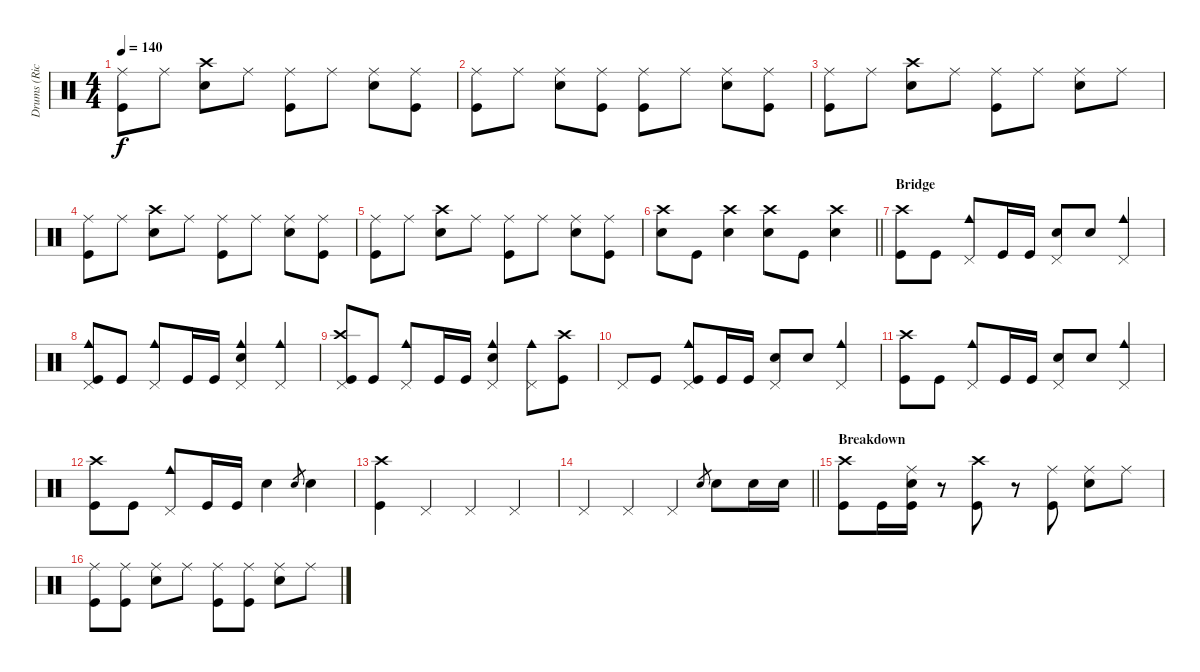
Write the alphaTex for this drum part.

\track ("Drums (Rick)" "Drums (Ric") {instrument percussion}
\staff {score}
\articulation defaults
\ts (4 4)
\tempo 140
\clef neutral
\ks aminor
("Ride (middle)" "Kick (hit)").8{dy f} "Ride (middle)".8 ("Crash high (hit)" "Snare (hit) 2").8 "Ride (middle)".8 ("Ride (middle)" "Kick (hit)").8 "Ride (middle)".8 ("Ride (middle)" "Snare (hit) 2").8 ("Ride (middle)" "Kick (hit)").8 |
("Ride (middle)" "Kick (hit)").8 "Ride (middle)".8 ("Ride (middle)" "Snare (hit) 2").8 ("Ride (middle)" "Kick (hit)").8 ("Ride (middle)" "Kick (hit)").8 "Ride (middle)".8 ("Ride (middle)" "Snare (hit) 2").8 ("Ride (middle)" "Kick (hit)").8 |
("Ride (middle)" "Kick (hit)").8 "Ride (middle)".8 ("Crash high (hit)" "Snare (hit) 2").8 "Ride (middle)".8 ("Ride (middle)" "Kick (hit)").8 "Ride (middle)".8 ("Ride (middle)" "Snare (hit) 2").8 "Ride (middle)".8 |
("Ride (middle)" "Kick (hit)").8 "Ride (middle)".8 ("Crash high (hit)" "Snare (hit) 2").8 "Ride (middle)".8 ("Ride (middle)" "Kick (hit)").8 "Ride (middle)".8 ("Ride (middle)" "Snare (hit) 2").8 ("Ride (middle)" "Kick (hit)").8 |
("Ride (middle)" "Kick (hit)").8 "Ride (middle)".8 ("Crash high (hit)" "Snare (hit) 2").8 "Ride (middle)".8 ("Ride (middle)" "Kick (hit)").8 "Ride (middle)".8 ("Ride (middle)" "Snare (hit) 2").8 ("Ride (middle)" "Kick (hit)").8 |
\barLineRight lightlight
("Crash high (hit)" "Snare (hit) 2").8 "Kick (hit)".8 ("Crash high (hit)" "Snare (hit) 2").4 ("Crash high (hit)" "Snare (hit) 2").8 "Kick (hit)".8 ("Crash high (hit)" "Snare (hit) 2").4 |
\section ("" "Bridge")
("Crash high (hit)" "Kick (hit)").8 "Kick (hit)".8 ("Cowbell medium (hit)" "Pedal Hi-Hat (hit)").8 "Kick (hit)".16 "Kick (hit)".16 ("Snare (hit) 2" "Pedal Hi-Hat (hit)").8 "Snare (hit) 2".8 ("Cowbell medium (hit)" "Pedal Hi-Hat (hit)").4 |
("Cowbell medium (hit)" "Pedal Hi-Hat (hit)" "Kick (hit)").8 "Kick (hit)".8 ("Cowbell medium (hit)" "Pedal Hi-Hat (hit)").8 "Kick (hit)".16 "Kick (hit)".16 ("Cowbell medium (hit)" "Snare (hit) 2" "Pedal Hi-Hat (hit)").4 ("Cowbell medium (hit)" "Pedal Hi-Hat (hit)").4 |
("Crash high (hit)" "Pedal Hi-Hat (hit)" "Kick (hit)").8 "Kick (hit)".8 ("Cowbell medium (hit)" "Pedal Hi-Hat (hit)").8 "Kick (hit)".16 "Kick (hit)".16 ("Cowbell medium (hit)" "Snare (hit) 2" "Pedal Hi-Hat (hit)").4 ("Cowbell medium (hit)" "Pedal Hi-Hat (hit)").8 ("Crash high (hit)" "Kick (hit)").8 |
"Pedal Hi-Hat (hit)".8 "Kick (hit)".8 ("Cowbell medium (hit)" "Pedal Hi-Hat (hit)" "Kick (hit)").8 "Kick (hit)".16 "Kick (hit)".16 ("Snare (hit) 2" "Pedal Hi-Hat (hit)").8 "Snare (hit) 2".8 ("Cowbell medium (hit)" "Pedal Hi-Hat (hit)").4 |
("Crash high (hit)" "Kick (hit)").8 "Kick (hit)".8 ("Cowbell medium (hit)" "Pedal Hi-Hat (hit)").8 "Kick (hit)".16 "Kick (hit)".16 ("Snare (hit) 2" "Pedal Hi-Hat (hit)").8 "Snare (hit) 2".8 ("Cowbell medium (hit)" "Pedal Hi-Hat (hit)").4 |
("Crash high (hit)" "Kick (hit)").8 "Kick (hit)".8 ("Cowbell medium (hit)" "Pedal Hi-Hat (hit)").8 "Kick (hit)".16 "Kick (hit)".16 "Snare (hit) 2".4 "Snare (hit) 2".8{gr} "Snare (hit) 2".4 |
("Crash high (hit)" "Kick (hit)").4 "Pedal Hi-Hat (hit)".4 "Pedal Hi-Hat (hit)".4 "Pedal Hi-Hat (hit)".4 |
\barLineRight lightlight "Pedal Hi-Hat (hit)".4 "Pedal Hi-Hat (hit)".4 "Pedal Hi-Hat (hit)".4 "Snare (hit) 2".8{gr} "Snare (hit) 2".8 "Snare (hit) 2".16 "Snare (hit) 2".16
|
\section ("" "Breakdown")
("Crash high (hit)" "Kick (hit)").8 "Kick (hit)".16 ("Ride (middle)" "Snare (hit) 2" "Kick (hit)").16 r.8 ("Crash high (hit)" "Kick (hit)").8 r.8 ("Ride (middle)" "Kick (hit)").8 ("Ride (middle)" "Snare (hit) 2").8 "Ride (middle)".8 |
("Ride (middle)" "Kick (hit)").8 ("Ride (middle)" "Kick (hit)").8 ("Ride (middle)" "Snare (hit) 2").8 "Ride (middle)".8 ("Ride (middle)" "Kick (hit)").8 ("Ride (middle)" "Kick (hit)").8 ("Ride (middle)" "Snare (hit) 2").8 "Ride (middle)".8
